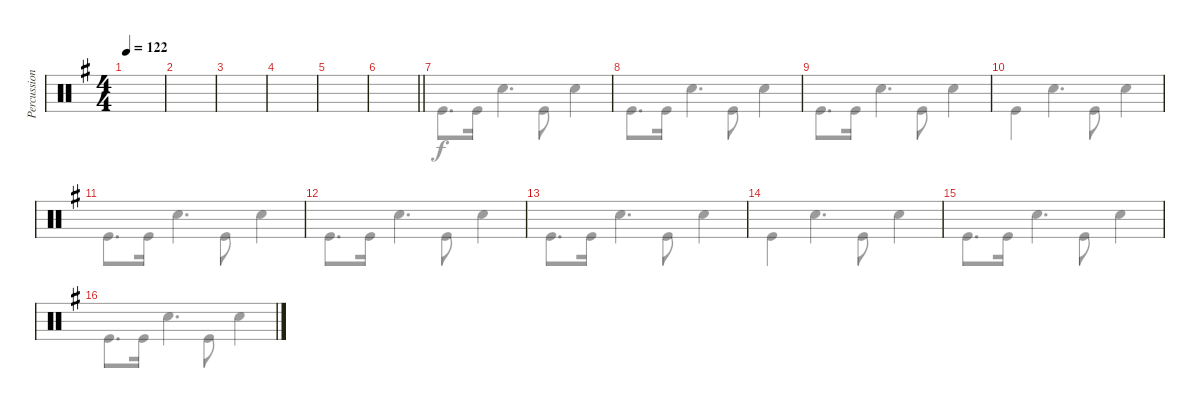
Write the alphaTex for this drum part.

\track ("Percussion" "Percussion") {instrument percussion}
\staff {score}
\articulation defaults
\voice
\ts (4 4)
\tempo 122
\clef neutral
\ks eminor
|
|
|
|
|
\barLineRight lightlight
|
|
|
|
|
|
|
|
|
|
\voice
\clef neutral
\ks eminor
|
|
|
|
|
\barLineRight lightlight
|
"Kick (hit)".8{d} "Kick (hit)".16 "Snare (hit) 2".4{d} "Kick (hit)".8 "Snare (hit) 2".4 |
"Kick (hit)".8{d} "Kick (hit)".16 "Snare (hit) 2".4{d} "Kick (hit)".8 "Snare (hit) 2".4 |
"Kick (hit)".8{d} "Kick (hit)".16 "Snare (hit) 2".4{d} "Kick (hit)".8 "Snare (hit) 2".4 |
"Kick (hit)".4 "Snare (hit) 2".4{d} "Kick (hit)".8 "Snare (hit) 2".4 |
"Kick (hit)".8{d} "Kick (hit)".16 "Snare (hit) 2".4{d} "Kick (hit)".8 "Snare (hit) 2".4 |
"Kick (hit)".8{d} "Kick (hit)".16 "Snare (hit) 2".4{d} "Kick (hit)".8 "Snare (hit) 2".4 |
"Kick (hit)".8{d} "Kick (hit)".16 "Snare (hit) 2".4{d} "Kick (hit)".8 "Snare (hit) 2".4 |
"Kick (hit)".4 "Snare (hit) 2".4{d} "Kick (hit)".8 "Snare (hit) 2".4 |
"Kick (hit)".8{d} "Kick (hit)".16 "Snare (hit) 2".4{d} "Kick (hit)".8 "Snare (hit) 2".4 |
"Kick (hit)".8{d} "Kick (hit)".16 "Snare (hit) 2".4{d} "Kick (hit)".8 "Snare (hit) 2".4
